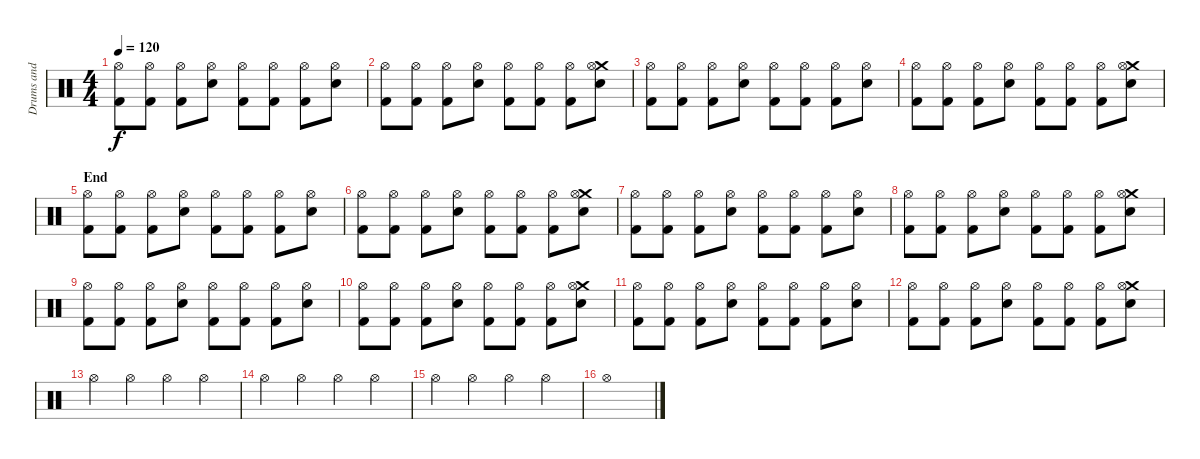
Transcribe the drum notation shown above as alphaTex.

\track ("Drums and Percussion" "Drums and ") {instrument percussion}
\staff {score}
\articulation defaults
\ts (4 4)
\tempo 120
\clef neutral
\ks c
("Hi-Hat (open)" "Kick (hit) 2").8{dy f} ("Hi-Hat (open)" "Kick (hit) 2").8 ("Hi-Hat (open)" "Kick (hit) 2").8 ("Hi-Hat (open)" "Electric Snare (hit)").8 ("Hi-Hat (open)" "Kick (hit) 2").8 ("Hi-Hat (open)" "Kick (hit) 2").8 ("Hi-Hat (open)" "Kick (hit) 2").8 ("Hi-Hat (open)" "Electric Snare (hit)").8 |
("Hi-Hat (open)" "Kick (hit) 2").8 ("Hi-Hat (open)" "Kick (hit) 2").8 ("Hi-Hat (open)" "Kick (hit) 2").8 ("Hi-Hat (open)" "Electric Snare (hit)").8 ("Hi-Hat (open)" "Kick (hit) 2").8 ("Hi-Hat (open)" "Kick (hit) 2").8 ("Hi-Hat (open)" "Kick (hit) 2").8 ("Crash medium (hit)" "Hi-Hat (open)" "Electric Snare (hit)").8 |
("Hi-Hat (open)" "Kick (hit) 2").8 ("Hi-Hat (open)" "Kick (hit) 2").8 ("Hi-Hat (open)" "Kick (hit) 2").8 ("Hi-Hat (open)" "Electric Snare (hit)").8 ("Hi-Hat (open)" "Kick (hit) 2").8 ("Hi-Hat (open)" "Kick (hit) 2").8 ("Hi-Hat (open)" "Kick (hit) 2").8 ("Hi-Hat (open)" "Electric Snare (hit)").8 |
("Hi-Hat (open)" "Kick (hit) 2").8 ("Hi-Hat (open)" "Kick (hit) 2").8 ("Hi-Hat (open)" "Kick (hit) 2").8 ("Hi-Hat (open)" "Electric Snare (hit)").8 ("Hi-Hat (open)" "Kick (hit) 2").8 ("Hi-Hat (open)" "Kick (hit) 2").8 ("Hi-Hat (open)" "Kick (hit) 2").8 ("Crash medium (hit)" "Hi-Hat (open)" "Electric Snare (hit)").8 |
\section ("" "End")
("Hi-Hat (open)" "Kick (hit) 2").8 ("Hi-Hat (open)" "Kick (hit) 2").8 ("Hi-Hat (open)" "Kick (hit) 2").8 ("Hi-Hat (open)" "Electric Snare (hit)").8 ("Hi-Hat (open)" "Kick (hit) 2").8 ("Hi-Hat (open)" "Kick (hit) 2").8 ("Hi-Hat (open)" "Kick (hit) 2").8 ("Hi-Hat (open)" "Electric Snare (hit)").8 |
("Hi-Hat (open)" "Kick (hit) 2").8 ("Hi-Hat (open)" "Kick (hit) 2").8 ("Hi-Hat (open)" "Kick (hit) 2").8 ("Hi-Hat (open)" "Electric Snare (hit)").8 ("Hi-Hat (open)" "Kick (hit) 2").8 ("Hi-Hat (open)" "Kick (hit) 2").8 ("Hi-Hat (open)" "Kick (hit) 2").8 ("Crash medium (hit)" "Hi-Hat (open)" "Electric Snare (hit)").8 |
("Hi-Hat (open)" "Kick (hit) 2").8 ("Hi-Hat (open)" "Kick (hit) 2").8 ("Hi-Hat (open)" "Kick (hit) 2").8 ("Hi-Hat (open)" "Electric Snare (hit)").8 ("Hi-Hat (open)" "Kick (hit) 2").8 ("Hi-Hat (open)" "Kick (hit) 2").8 ("Hi-Hat (open)" "Kick (hit) 2").8 ("Hi-Hat (open)" "Electric Snare (hit)").8 |
("Hi-Hat (open)" "Kick (hit) 2").8 ("Hi-Hat (open)" "Kick (hit) 2").8 ("Hi-Hat (open)" "Kick (hit) 2").8 ("Hi-Hat (open)" "Electric Snare (hit)").8 ("Hi-Hat (open)" "Kick (hit) 2").8 ("Hi-Hat (open)" "Kick (hit) 2").8 ("Hi-Hat (open)" "Kick (hit) 2").8 ("Crash medium (hit)" "Hi-Hat (open)" "Electric Snare (hit)").8 |
("Hi-Hat (open)" "Kick (hit) 2").8 ("Hi-Hat (open)" "Kick (hit) 2").8 ("Hi-Hat (open)" "Kick (hit) 2").8 ("Hi-Hat (open)" "Electric Snare (hit)").8 ("Hi-Hat (open)" "Kick (hit) 2").8 ("Hi-Hat (open)" "Kick (hit) 2").8 ("Hi-Hat (open)" "Kick (hit) 2").8 ("Hi-Hat (open)" "Electric Snare (hit)").8 |
("Hi-Hat (open)" "Kick (hit) 2").8 ("Hi-Hat (open)" "Kick (hit) 2").8 ("Hi-Hat (open)" "Kick (hit) 2").8 ("Hi-Hat (open)" "Electric Snare (hit)").8 ("Hi-Hat (open)" "Kick (hit) 2").8 ("Hi-Hat (open)" "Kick (hit) 2").8 ("Hi-Hat (open)" "Kick (hit) 2").8 ("Crash medium (hit)" "Hi-Hat (open)" "Electric Snare (hit)").8 |
("Hi-Hat (open)" "Kick (hit) 2").8 ("Hi-Hat (open)" "Kick (hit) 2").8 ("Hi-Hat (open)" "Kick (hit) 2").8 ("Hi-Hat (open)" "Electric Snare (hit)").8 ("Hi-Hat (open)" "Kick (hit) 2").8 ("Hi-Hat (open)" "Kick (hit) 2").8 ("Hi-Hat (open)" "Kick (hit) 2").8 ("Hi-Hat (open)" "Electric Snare (hit)").8 |
("Hi-Hat (open)" "Kick (hit) 2").8 ("Hi-Hat (open)" "Kick (hit) 2").8 ("Hi-Hat (open)" "Kick (hit) 2").8 ("Hi-Hat (open)" "Electric Snare (hit)").8 ("Hi-Hat (open)" "Kick (hit) 2").8 ("Hi-Hat (open)" "Kick (hit) 2").8 ("Hi-Hat (open)" "Kick (hit) 2").8 ("Crash medium (hit)" "Hi-Hat (open)" "Electric Snare (hit)").8 |
"Hi-Hat (open)".4 "Hi-Hat (open)".4 "Hi-Hat (open)".4 "Hi-Hat (open)".4 |
"Hi-Hat (open)".4 "Hi-Hat (open)".4 "Hi-Hat (open)".4 "Hi-Hat (open)".4 |
"Hi-Hat (open)".4 "Hi-Hat (open)".4 "Hi-Hat (open)".4 "Hi-Hat (open)".4 |
"Hi-Hat (open)".1
